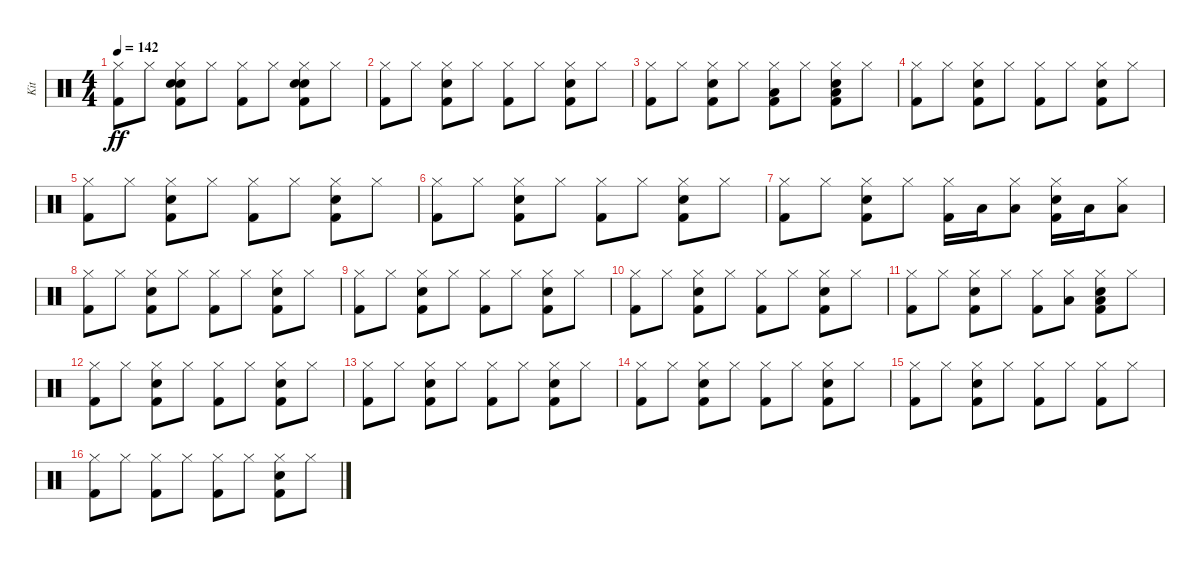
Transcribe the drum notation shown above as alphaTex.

\track ("Kit" "Kit") {instrument percussion}
\staff {score}
\articulation defaults
\ts (4 4)
\tempo 142
\clef neutral
\ks c
("Kick (hit) 2" "Hi-Hat (closed)").8{dy ff} "Hi-Hat (closed)".8 ("Kick (hit) 2" "Hand Clap (hit)" "Electric Snare (hit)" "Hi-Hat (closed)").8 "Hi-Hat (closed)".8 ("Kick (hit) 2" "Hi-Hat (closed)").8 "Hi-Hat (closed)".8 ("Kick (hit) 2" "Hand Clap (hit)" "Electric Snare (hit)" "Hi-Hat (closed)").8 "Hi-Hat (closed)".8 |
("Kick (hit) 2" "Hi-Hat (closed)").8 "Hi-Hat (closed)".8 ("Kick (hit) 2" "Electric Snare (hit)" "Hi-Hat (closed)").8 "Hi-Hat (closed)".8 ("Kick (hit) 2" "Hi-Hat (closed)").8 "Hi-Hat (closed)".8 ("Kick (hit) 2" "Electric Snare (hit)" "Hi-Hat (closed)").8 "Hi-Hat (closed)".8 |
("Kick (hit) 2" "Hi-Hat (closed)").8 "Hi-Hat (closed)".8 ("Kick (hit) 2" "Electric Snare (hit)" "Hi-Hat (closed)").8 "Hi-Hat (closed)".8 ("Kick (hit) 2" "Low Floor Tom (hit)" "Hi-Hat (closed)").8 "Hi-Hat (closed)".8 ("Kick (hit) 2" "Electric Snare (hit)" "Low Floor Tom (hit)" "Hi-Hat (closed)").8 "Hi-Hat (closed)".8 |
("Kick (hit) 2" "Hi-Hat (closed)").8 "Hi-Hat (closed)".8 ("Kick (hit) 2" "Electric Snare (hit)" "Hi-Hat (closed)").8 "Hi-Hat (closed)".8 ("Kick (hit) 2" "Hi-Hat (closed)").8 "Hi-Hat (closed)".8 ("Kick (hit) 2" "Electric Snare (hit)" "Hi-Hat (closed)").8 "Hi-Hat (closed)".8 |
("Kick (hit) 2" "Hi-Hat (closed)").8 "Hi-Hat (closed)".8 ("Kick (hit) 2" "Electric Snare (hit)" "Hi-Hat (closed)").8 "Hi-Hat (closed)".8 ("Kick (hit) 2" "Hi-Hat (closed)").8 "Hi-Hat (closed)".8 ("Kick (hit) 2" "Electric Snare (hit)" "Hi-Hat (closed)").8 "Hi-Hat (closed)".8 |
("Kick (hit) 2" "Hi-Hat (closed)").8 "Hi-Hat (closed)".8 ("Kick (hit) 2" "Electric Snare (hit)" "Hi-Hat (closed)").8 "Hi-Hat (closed)".8 ("Kick (hit) 2" "Hi-Hat (closed)").8 "Hi-Hat (closed)".8 ("Kick (hit) 2" "Electric Snare (hit)" "Hi-Hat (closed)").8 "Hi-Hat (closed)".8 |
("Kick (hit) 2" "Hi-Hat (closed)").8 "Hi-Hat (closed)".8 ("Kick (hit) 2" "Electric Snare (hit)" "Hi-Hat (closed)").8 "Hi-Hat (closed)".8 ("Kick (hit) 2" "Hi-Hat (closed)").16 "Low Floor Tom (hit)".16 ("Low Floor Tom (hit)" "Hi-Hat (closed)").8 ("Kick (hit) 2" "Electric Snare (hit)" "Hi-Hat (closed)").16 "Low Floor Tom (hit)".16 ("Low Floor Tom (hit)" "Hi-Hat (closed)").8 |
("Kick (hit) 2" "Hi-Hat (closed)").8 "Hi-Hat (closed)".8 ("Kick (hit) 2" "Electric Snare (hit)" "Hi-Hat (closed)").8 "Hi-Hat (closed)".8 ("Kick (hit) 2" "Hi-Hat (closed)").8 "Hi-Hat (closed)".8 ("Kick (hit) 2" "Electric Snare (hit)" "Hi-Hat (closed)").8 "Hi-Hat (closed)".8 |
("Kick (hit) 2" "Hi-Hat (closed)").8 "Hi-Hat (closed)".8 ("Kick (hit) 2" "Electric Snare (hit)" "Hi-Hat (closed)").8 "Hi-Hat (closed)".8 ("Kick (hit) 2" "Hi-Hat (closed)").8 "Hi-Hat (closed)".8 ("Kick (hit) 2" "Electric Snare (hit)" "Hi-Hat (closed)").8 "Hi-Hat (closed)".8 |
("Kick (hit) 2" "Hi-Hat (closed)").8 "Hi-Hat (closed)".8 ("Kick (hit) 2" "Electric Snare (hit)" "Hi-Hat (closed)").8 "Hi-Hat (closed)".8 ("Kick (hit) 2" "Hi-Hat (closed)").8 "Hi-Hat (closed)".8 ("Kick (hit) 2" "Electric Snare (hit)" "Hi-Hat (closed)").8 "Hi-Hat (closed)".8 |
("Kick (hit) 2" "Hi-Hat (closed)").8 "Hi-Hat (closed)".8 ("Kick (hit) 2" "Electric Snare (hit)" "Hi-Hat (closed)").8 "Hi-Hat (closed)".8 ("Kick (hit) 2" "Hi-Hat (closed)").8 ("Low Floor Tom (hit)" "Hi-Hat (closed)").8 ("Kick (hit) 2" "Electric Snare (hit)" "Low Floor Tom (hit)" "Hi-Hat (closed)").8 "Hi-Hat (closed)".8 |
("Kick (hit) 2" "Hi-Hat (closed)").8 "Hi-Hat (closed)".8 ("Kick (hit) 2" "Electric Snare (hit)" "Hi-Hat (closed)").8 "Hi-Hat (closed)".8 ("Kick (hit) 2" "Hi-Hat (closed)").8 "Hi-Hat (closed)".8 ("Kick (hit) 2" "Electric Snare (hit)" "Hi-Hat (closed)").8 "Hi-Hat (closed)".8 |
("Kick (hit) 2" "Hi-Hat (closed)").8 "Hi-Hat (closed)".8 ("Kick (hit) 2" "Electric Snare (hit)" "Hi-Hat (closed)").8 "Hi-Hat (closed)".8 ("Kick (hit) 2" "Hi-Hat (closed)").8 "Hi-Hat (closed)".8 ("Kick (hit) 2" "Electric Snare (hit)" "Hi-Hat (closed)").8 "Hi-Hat (closed)".8 |
("Kick (hit) 2" "Hi-Hat (closed)").8 "Hi-Hat (closed)".8 ("Kick (hit) 2" "Electric Snare (hit)" "Hi-Hat (closed)").8 "Hi-Hat (closed)".8 ("Kick (hit) 2" "Hi-Hat (closed)").8 "Hi-Hat (closed)".8 ("Kick (hit) 2" "Electric Snare (hit)" "Hi-Hat (closed)").8 "Hi-Hat (closed)".8 |
("Kick (hit) 2" "Hi-Hat (closed)").8 "Hi-Hat (closed)".8 ("Kick (hit) 2" "Electric Snare (hit)" "Hi-Hat (closed)").8 "Hi-Hat (closed)".8 ("Kick (hit) 2" "Hi-Hat (closed)").8 "Hi-Hat (closed)".8 ("Kick (hit) 2" "Hi-Hat (closed)").8 "Hi-Hat (closed)".8 |
("Kick (hit) 2" "Hi-Hat (closed)").8 "Hi-Hat (closed)".8 ("Kick (hit) 2" "Hi-Hat (closed)").8 "Hi-Hat (closed)".8 ("Kick (hit) 2" "Hi-Hat (closed)").8 "Hi-Hat (closed)".8 ("Kick (hit) 2" "Electric Snare (hit)" "Hi-Hat (closed)").8 "Hi-Hat (closed)".8
